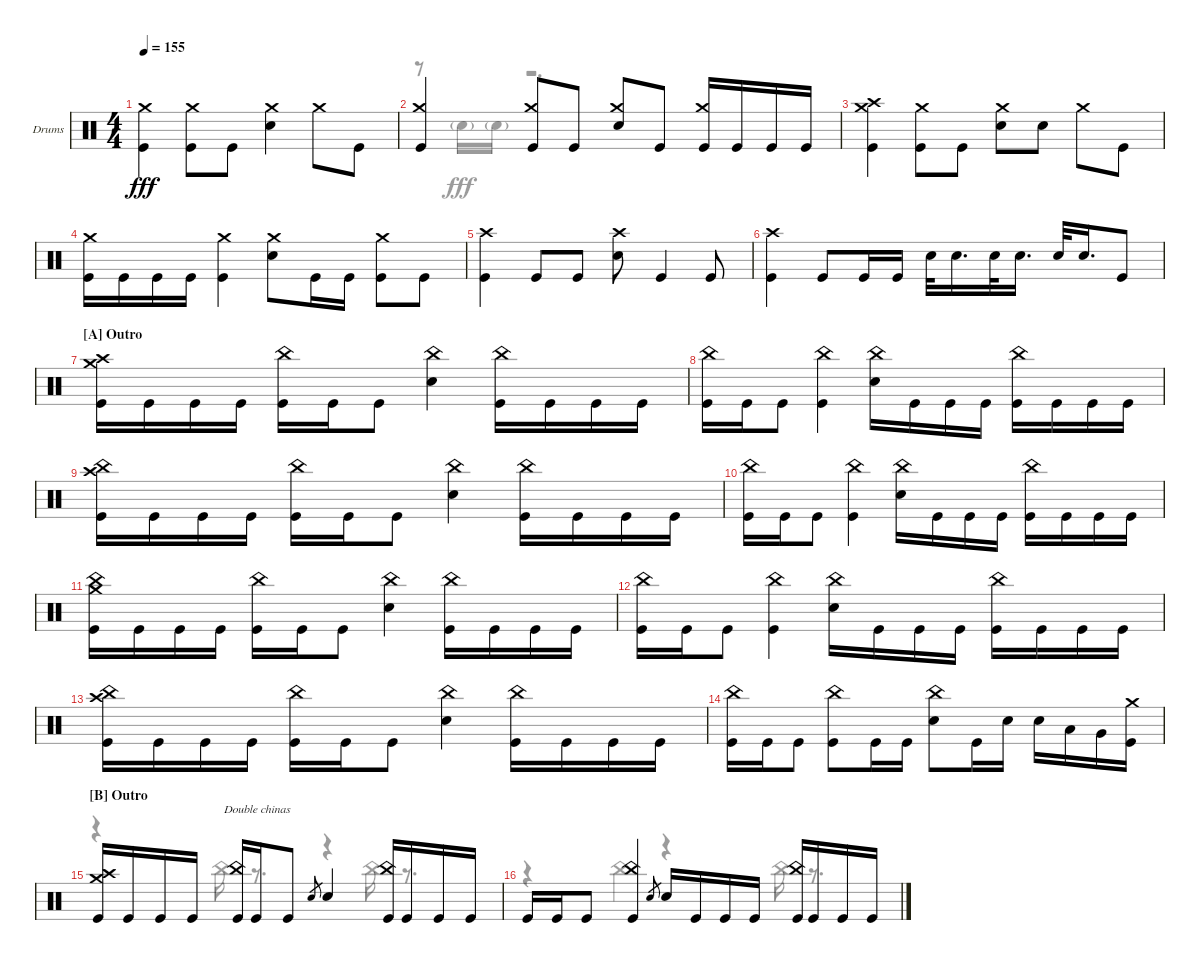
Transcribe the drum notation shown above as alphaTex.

\defaultSystemsLayout 4
\bracketExtendMode groupsimilarinstruments
\firstSystemTrackNameOrientation horizontal
\otherSystemsTrackNameOrientation horizontal
\track ("Alex Rudinger" "Drums") {instrument percussion}
\staff {score}
\articulation defaults
\voice
\ts (4 4)
\tempo 155
\clef neutral
\ks c
("Kick (hit)" "Crash medium (hit)").4{dy fff} ("Kick (hit)" "Crash medium (hit)").8 "Kick (hit)".8 ("Snare (hit) 2" "Crash medium (hit)").4 "Crash medium (hit)".8 "Kick (hit)".8 |
("Kick (hit)" "Crash medium (hit)").4 ("Kick (hit)" "Crash medium (hit)").8 "Kick (hit)".8 ("Snare (hit) 2" "Crash medium (hit)").8 "Kick (hit)".8 ("Kick (hit)" "Crash medium (hit)").16 "Kick (hit)".16 "Kick (hit)".16 "Kick (hit)".16 |
("Kick (hit)" "Crash medium (hit)" "Crash high (hit)").4 ("Kick (hit)" "Crash medium (hit)").8 "Kick (hit)".8 ("Snare (hit) 2" "Crash medium (hit)").8 "Snare (hit) 2".8 "Crash medium (hit)".8 "Kick (hit)".8 |
("Kick (hit)" "Crash medium (hit)").16 "Kick (hit)".16 "Kick (hit)".16 "Kick (hit)".16 ("Kick (hit)" "Crash medium (hit)").4 ("Snare (hit) 2" "Crash medium (hit)").8 "Kick (hit)".16 "Kick (hit)".16 ("Kick (hit)" "Crash medium (hit)").8 "Kick (hit)".8 |
("Kick (hit)" "Crash high (hit)").4 "Kick (hit)".8 "Kick (hit)".8 ("Snare (hit) 2" "Crash high (hit)").8 "Kick (hit)".4 "Kick (hit)".8 |
("Kick (hit)" "Crash high (hit)").4 "Kick (hit)".8 "Kick (hit)".16 "Kick (hit)".16 "Snare (hit) 2".32 "Snare (hit) 2".16{d} "Snare (hit) 2".32 "Snare (hit) 2".16{d} "Snare (hit) 2".32 "Snare (hit) 2".16{d} "Kick (hit)".8 |
\section ("A" "Outro")
("Crash high (hit)" "Crash medium (hit)" "Kick (hit)").16 "Kick (hit)".16 "Kick (hit)".16 "Kick (hit)".16 ("Kick (hit)" "China (hit)").16 "Kick (hit)".16 "Kick (hit)".8 ("Snare (hit) 2" "China (hit)").4 ("Kick (hit)" "China (hit)").16 "Kick (hit)".16 "Kick (hit)".16 "Kick (hit)".16 |
("Kick (hit)" "China (hit)").16 "Kick (hit)".16 "Kick (hit)".8 ("Kick (hit)" "China (hit)").4 ("China (hit)" "Snare (hit) 2").16 "Kick (hit)".16 "Kick (hit)".16 "Kick (hit)".16 ("Kick (hit)" "China (hit)").16 "Kick (hit)".16 "Kick (hit)".16 "Kick (hit)".16 |
("Kick (hit)" "China (hit)" "Crash high (hit)").16 "Kick (hit)".16 "Kick (hit)".16 "Kick (hit)".16 ("Kick (hit)" "China (hit)").16 "Kick (hit)".16 "Kick (hit)".8 ("Snare (hit) 2" "China (hit)").4 ("Kick (hit)" "China (hit)").16 "Kick (hit)".16 "Kick (hit)".16 "Kick (hit)".16 |
("Kick (hit)" "China (hit)").16 "Kick (hit)".16 "Kick (hit)".8 ("Kick (hit)" "China (hit)").4 ("China (hit)" "Snare (hit) 2").16 "Kick (hit)".16 "Kick (hit)".16 "Kick (hit)".16 ("Kick (hit)" "China (hit)").16 "Kick (hit)".16 "Kick (hit)".16 "Kick (hit)".16 |
("Crash medium (hit)" "Kick (hit)" "China (hit)").16 "Kick (hit)".16 "Kick (hit)".16 "Kick (hit)".16 ("Kick (hit)" "China (hit)").16 "Kick (hit)".16 "Kick (hit)".8 ("Snare (hit) 2" "China (hit)").4 ("Kick (hit)" "China (hit)").16 "Kick (hit)".16 "Kick (hit)".16 "Kick (hit)".16 |
("Kick (hit)" "China (hit)").16 "Kick (hit)".16 "Kick (hit)".8 ("Kick (hit)" "China (hit)").4 ("China (hit)" "Snare (hit) 2").16 "Kick (hit)".16 "Kick (hit)".16 "Kick (hit)".16 ("Kick (hit)" "China (hit)").16 "Kick (hit)".16 "Kick (hit)".16 "Kick (hit)".16 |
("Kick (hit)" "China (hit)" "Crash high (hit)").16 "Kick (hit)".16 "Kick (hit)".16 "Kick (hit)".16 ("Kick (hit)" "China (hit)").16 "Kick (hit)".16 "Kick (hit)".8 ("Snare (hit) 2" "China (hit)").4 ("Kick (hit)" "China (hit)").16 "Kick (hit)".16 "Kick (hit)".16 "Kick (hit)".16 |
("Kick (hit)" "China (hit)").16 "Kick (hit)".16 "Kick (hit)".8 ("Kick (hit)" "China (hit)").8 "Kick (hit)".16 "Kick (hit)".16 ("China (hit)" "Snare (hit) 2").8 "Kick (hit)".16 "Snare (hit) 2".16 "Snare (hit) 2".16 "Low Tom (hit)".16 "Very Low Tom (hit)".16 ("Kick (hit)" "Crash medium (hit)").16 |
\section ("B" "Outro")
("Crash high (hit)" "Crash medium (hit)" "Kick (hit)").16 "Kick (hit)".16 "Kick (hit)".16 "Kick (hit)".16 ("Kick (hit)" "China (hit)").16{txt "Double chinas"} "Kick (hit)".16 "Kick (hit)".8 "Snare (hit) 2".8{gr} "Snare (hit) 2".4 ("Kick (hit)" "China (hit)").16 "Kick (hit)".16 "Kick (hit)".16 "Kick (hit)".16 |
"Kick (hit)".16 "Kick (hit)".16 "Kick (hit)".8 ("Kick (hit)" "China (hit)").4 "Snare (hit) 2".8{gr} "Snare (hit) 2".16 "Kick (hit)".16 "Kick (hit)".16 "Kick (hit)".16 ("Kick (hit)" "China (hit)").16 "Kick (hit)".16 "Kick (hit)".16 "Kick (hit)".16
\voice
\clef neutral
\ottava regular
\simile none
\ks c
|
r.8 "Snare (hit) 2"{g}.16 "Snare (hit) 2"{g}.16 r.2{d} |
|
|
|
|
|
|
|
|
|
|
|
|
r.4 "China (hit)".16{dy fff} r.8{d} r.4 "China (hit)".16 r.8{d} |
r.4 "China (hit)".4 r.4 "China (hit)".16 r.8{d}
